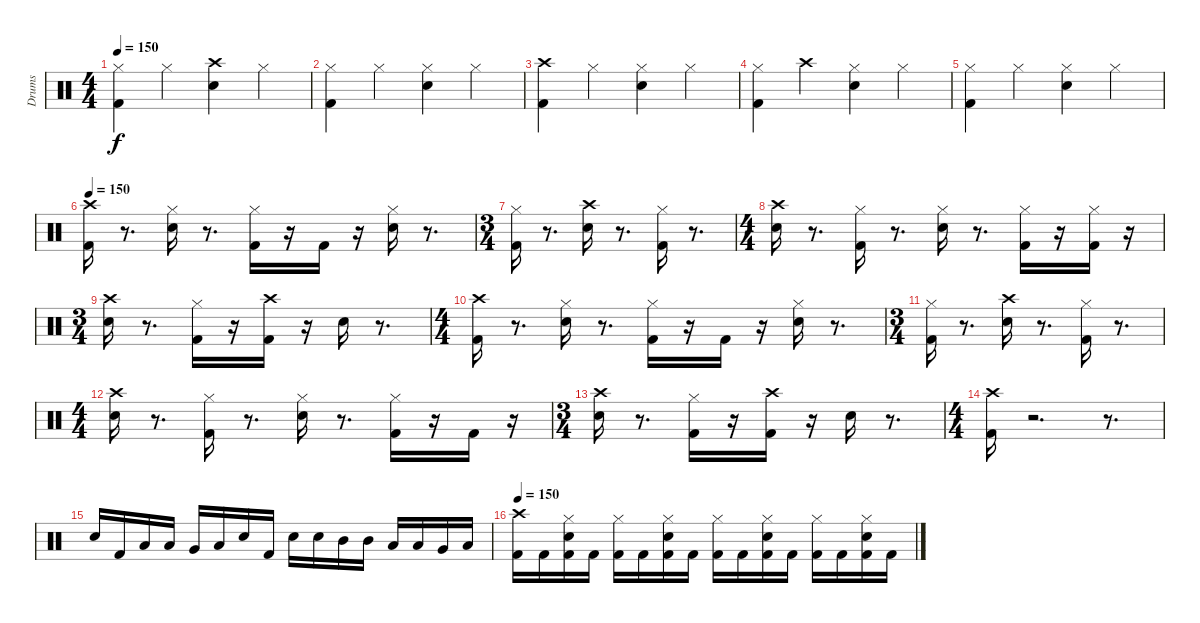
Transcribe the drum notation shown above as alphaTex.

\track ("Drums" "Drums") {instrument percussion}
\staff {score}
\articulation defaults
\ts (4 4)
\tempo 150
\clef neutral
\ks c
("Hi-Hat (closed)" "Kick (hit) 2").4{dy f} "Hi-Hat (closed)".4 ("Crash high (hit)" "Electric Snare (hit)").4 "Hi-Hat (closed)".4 |
("Hi-Hat (closed)" "Kick (hit) 2").4 "Hi-Hat (closed)".4 ("Hi-Hat (closed)" "Electric Snare (hit)").4 "Hi-Hat (closed)".4 |
("Crash high (hit)" "Kick (hit) 2").4 "Hi-Hat (closed)".4 ("Hi-Hat (closed)" "Electric Snare (hit)").4 "Hi-Hat (closed)".4 |
("Hi-Hat (closed)" "Kick (hit) 2").4 "Crash high (hit)".4 ("Hi-Hat (closed)" "Electric Snare (hit)").4 "Hi-Hat (closed)".4 |
("Hi-Hat (closed)" "Kick (hit) 2").4 "Hi-Hat (closed)".4 ("Hi-Hat (closed)" "Electric Snare (hit)").4 "Hi-Hat (closed)".4 |
\tempo 150
("Crash high (hit)" "Kick (hit) 2").16 r.8{d} ("Hi-Hat (closed)" "Electric Snare (hit)").16 r.8{d} ("Hi-Hat (closed)" "Kick (hit) 2").16 r.16 "Kick (hit) 2".16 r.16 ("Hi-Hat (closed)" "Electric Snare (hit)").16 r.8{d} |
\ts (3 4)
("Hi-Hat (closed)" "Kick (hit) 2").16 r.8{d} ("Crash high (hit)" "Electric Snare (hit)").16 r.8{d} ("Hi-Hat (closed)" "Kick (hit) 2").16 r.8{d} |
\ts (4 4)
("Crash high (hit)" "Electric Snare (hit)").16 r.8{d} ("Hi-Hat (closed)" "Kick (hit) 2").16 r.8{d} ("Hi-Hat (closed)" "Electric Snare (hit)").16 r.8{d} ("Hi-Hat (closed)" "Kick (hit) 2").16 r.16 ("Hi-Hat (closed)" "Kick (hit) 2").16 r.16 |
\ts (3 4)
("Crash high (hit)" "Electric Snare (hit)").16 r.8{d} ("Hi-Hat (closed)" "Kick (hit) 2").16 r.16 ("Crash high (hit)" "Kick (hit) 2").16 r.16 "Electric Snare (hit)".16 r.8{d} |
\ts (4 4)
("Crash high (hit)" "Kick (hit) 2").16 r.8{d} ("Hi-Hat (closed)" "Electric Snare (hit)").16 r.8{d} ("Hi-Hat (closed)" "Kick (hit) 2").16 r.16 "Kick (hit) 2".16 r.16 ("Hi-Hat (closed)" "Electric Snare (hit)").16 r.8{d} |
\ts (3 4)
("Hi-Hat (closed)" "Kick (hit) 2").16 r.8{d} ("Crash high (hit)" "Electric Snare (hit)").16 r.8{d} ("Hi-Hat (closed)" "Kick (hit) 2").16 r.8{d} |
\ts (4 4)
("Crash high (hit)" "Electric Snare (hit)").16 r.8{d} ("Hi-Hat (closed)" "Kick (hit) 2").16 r.8{d} ("Hi-Hat (closed)" "Electric Snare (hit)").16 r.8{d} ("Hi-Hat (closed)" "Kick (hit) 2").16 r.16 "Kick (hit) 2".16 r.16 |
\ts (3 4)
("Crash high (hit)" "Electric Snare (hit)").16 r.8{d} ("Hi-Hat (closed)" "Kick (hit) 2").16 r.16 ("Crash high (hit)" "Kick (hit) 2").16 r.16 "Electric Snare (hit)".16 r.8{d} |
\ts (4 4)
("Crash high (hit)" "Kick (hit) 2").16 r.2{d} r.8{d} |
"Electric Snare (hit)".16 "Kick (hit) 2".16 "Low Tom (hit)".16 "Low Tom (hit)".16 "Very Low Tom (hit)".16 "Low Floor Tom (hit)".16 "Electric Snare (hit)".16 "Kick (hit) 2".16 "Electric Snare (hit)".16 "Electric Snare (hit)".16 "Mid Tom (hit)".16 "Mid Tom (hit)".16 "Low Tom (hit)".16 "Low Tom (hit)".16 "Very Low Tom (hit)".16 "Low Floor Tom (hit)".16 |
\tempo 150
("Crash high (hit)" "Kick (hit) 2").16 "Kick (hit) 2".16 ("Hi-Hat (closed)" "Electric Snare (hit)" "Kick (hit) 2").16 "Kick (hit) 2".16 ("Hi-Hat (closed)" "Kick (hit) 2").16 "Kick (hit) 2".16 ("Hi-Hat (closed)" "Electric Snare (hit)" "Kick (hit) 2").16 "Kick (hit) 2".16 ("Hi-Hat (closed)" "Kick (hit) 2").16 "Kick (hit) 2".16 ("Hi-Hat (closed)" "Electric Snare (hit)" "Kick (hit) 2").16 "Kick (hit) 2".16 ("Hi-Hat (closed)" "Kick (hit) 2").16 "Kick (hit) 2".16 ("Hi-Hat (closed)" "Electric Snare (hit)" "Kick (hit) 2").16 "Kick (hit) 2".16
